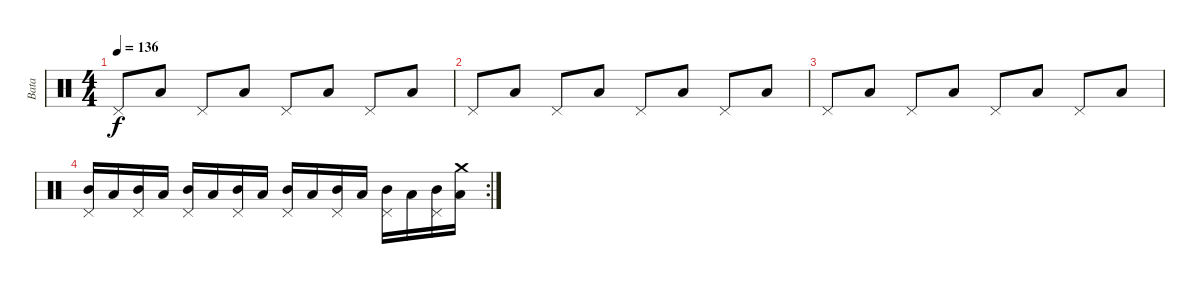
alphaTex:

\track ("Bata" "Bata") {instrument percussion}
\staff {score}
\articulation defaults
\ts (4 4)
\tempo 136
\clef neutral
\ks c "Pedal Hi-Hat (hit)".8{dy f} "Low Floor Tom (hit)".8 "Pedal Hi-Hat (hit)".8 "Low Floor Tom (hit)".8 "Pedal Hi-Hat (hit)".8 "Low Floor Tom (hit)".8 "Pedal Hi-Hat (hit)".8 "Low Floor Tom (hit)".8
|
"Pedal Hi-Hat (hit)".8 "Low Floor Tom (hit)".8 "Pedal Hi-Hat (hit)".8 "Low Floor Tom (hit)".8 "Pedal Hi-Hat (hit)".8 "Low Floor Tom (hit)".8 "Pedal Hi-Hat (hit)".8 "Low Floor Tom (hit)".8 |
"Pedal Hi-Hat (hit)".8 "Low Floor Tom (hit)".8 "Pedal Hi-Hat (hit)".8 "Low Floor Tom (hit)".8 "Pedal Hi-Hat (hit)".8 "Low Floor Tom (hit)".8 "Pedal Hi-Hat (hit)".8 "Low Floor Tom (hit)".8 |
\rc 2
("Pedal Hi-Hat (hit)" "Mid Tom (hit)").16 "Low Floor Tom (hit)".16 ("Pedal Hi-Hat (hit)" "Mid Tom (hit)").16 "Low Floor Tom (hit)".16 ("Pedal Hi-Hat (hit)" "Mid Tom (hit)").16 "Low Floor Tom (hit)".16 ("Pedal Hi-Hat (hit)" "Mid Tom (hit)").16 "Low Floor Tom (hit)".16 ("Pedal Hi-Hat (hit)" "Mid Tom (hit)").16 "Low Floor Tom (hit)".16 ("Pedal Hi-Hat (hit)" "Mid Tom (hit)").16 "Low Floor Tom (hit)".16 ("Pedal Hi-Hat (hit)" "Mid Tom (hit)").16 "Low Floor Tom (hit)".16 ("Pedal Hi-Hat (hit)" "Mid Tom (hit)").16 ("Low Floor Tom (hit)" "Crash medium (hit)").16
